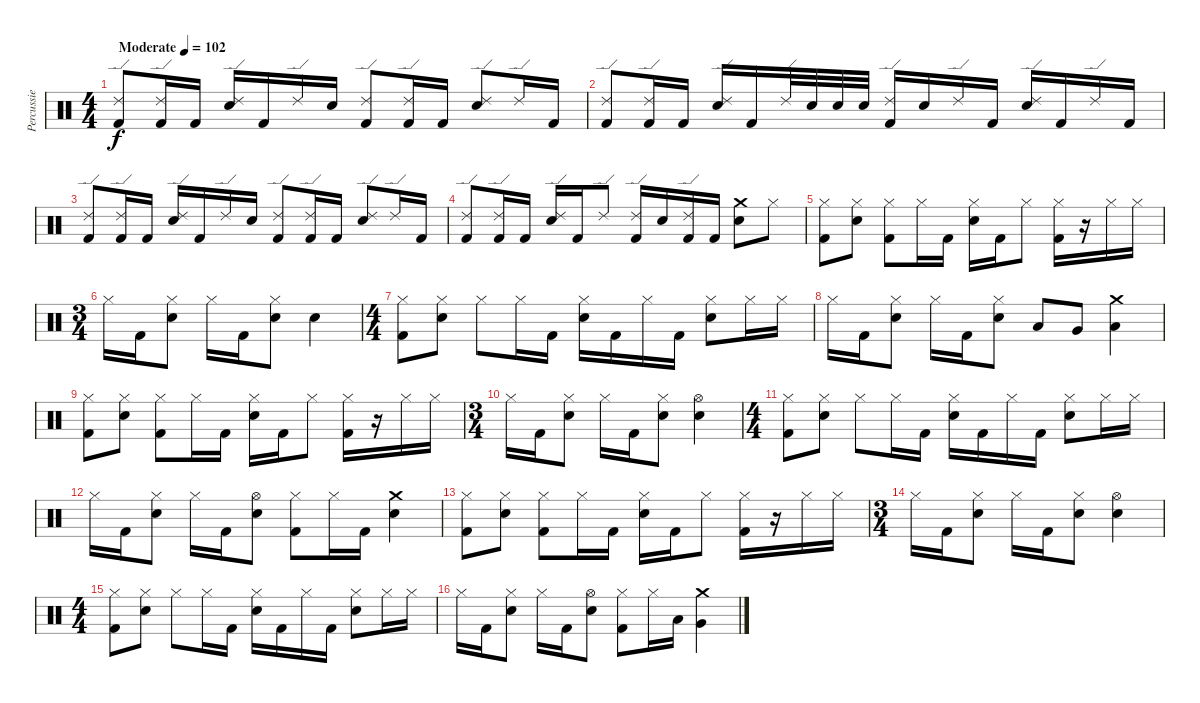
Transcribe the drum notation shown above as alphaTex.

\track ("Percussie" "Percussie") {instrument percussion}
\staff {score}
\articulation defaults
\ts (4 4)
\tempo (102 "Moderate")
\clef neutral
\ks c
("Ride (edge) 2" "Kick (hit) 2").8{dy f} ("Ride (edge) 2" "Kick (hit) 2").16 "Kick (hit) 2".16 ("Ride (edge) 2" "Electric Snare (hit)").16 "Kick (hit) 2".16 "Ride (edge) 2".16 "Electric Snare (hit)".16 ("Ride (edge) 2" "Kick (hit) 2").8 ("Ride (edge) 2" "Kick (hit) 2").16 "Kick (hit) 2".16 ("Ride (edge) 2" "Electric Snare (hit)").8 "Ride (edge) 2".16 "Kick (hit) 2".16 |
("Ride (edge) 2" "Kick (hit) 2").8 ("Ride (edge) 2" "Kick (hit) 2").16 "Kick (hit) 2".16 ("Ride (edge) 2" "Electric Snare (hit)").16 "Kick (hit) 2".16 "Ride (edge) 2".32 "Electric Snare (hit)".32 "Electric Snare (hit)".32 "Electric Snare (hit)".32 ("Ride (edge) 2" "Kick (hit) 2").16 "Electric Snare (hit)".16 "Ride (edge) 2".16 "Kick (hit) 2".16 ("Ride (edge) 2" "Electric Snare (hit)").16 "Kick (hit) 2".16 "Ride (edge) 2".16 "Kick (hit) 2".16 |
("Ride (edge) 2" "Kick (hit) 2").8 ("Ride (edge) 2" "Kick (hit) 2").16 "Kick (hit) 2".16 ("Ride (edge) 2" "Electric Snare (hit)").16 "Kick (hit) 2".16 "Ride (edge) 2".16 "Electric Snare (hit)".16 ("Ride (edge) 2" "Kick (hit) 2").8 ("Ride (edge) 2" "Kick (hit) 2").16 "Kick (hit) 2".16 ("Ride (edge) 2" "Electric Snare (hit)").8 "Ride (edge) 2".16 "Kick (hit) 2".16 |
("Ride (edge) 2" "Kick (hit) 2").8 ("Ride (edge) 2" "Kick (hit) 2").16 "Kick (hit) 2".16 ("Ride (edge) 2" "Electric Snare (hit)").16 "Kick (hit) 2".16 "Ride (edge) 2".8 ("Ride (edge) 2" "Kick (hit) 2").16 "Electric Snare (hit)".16 ("Ride (edge) 2" "Kick (hit) 2").16 "Kick (hit) 2".16 ("Crash medium (hit)" "Electric Snare (hit)").8 "Hi-Hat (closed)".8 |
("Hi-Hat (closed)" "Kick (hit) 2").8 ("Hi-Hat (closed)" "Electric Snare (hit)").8 ("Hi-Hat (closed)" "Kick (hit) 2").8 "Hi-Hat (closed)".16 "Kick (hit) 2".16 ("Hi-Hat (closed)" "Electric Snare (hit)").16 "Kick (hit) 2".16 "Hi-Hat (closed)".8 ("Hi-Hat (closed)" "Kick (hit) 2").16 r.16 "Hi-Hat (closed)".16 "Hi-Hat (closed)".16 |
\ts (3 4)
"Hi-Hat (closed)".16 "Kick (hit) 2".16 ("Hi-Hat (closed)" "Electric Snare (hit)").8 "Hi-Hat (closed)".16 "Kick (hit) 2".16 ("Hi-Hat (closed)" "Electric Snare (hit)").8 "Electric Snare (hit)".4 |
\ts (4 4)
("Hi-Hat (closed)" "Kick (hit) 2").8 ("Hi-Hat (closed)" "Electric Snare (hit)").8 "Hi-Hat (closed)".8 "Hi-Hat (closed)".16 "Kick (hit) 2".16 ("Hi-Hat (closed)" "Electric Snare (hit)").16 "Kick (hit) 2".16 "Hi-Hat (closed)".16 "Kick (hit) 2".16 ("Hi-Hat (closed)" "Electric Snare (hit)").8 "Hi-Hat (closed)".16 "Hi-Hat (closed)".16 |
"Hi-Hat (closed)".16 "Kick (hit) 2".16 ("Hi-Hat (closed)" "Electric Snare (hit)").8 "Hi-Hat (closed)".16 "Kick (hit) 2".16 ("Hi-Hat (closed)" "Electric Snare (hit)").8 "Low Tom (hit)".8 "Very Low Tom (hit)".8 ("Crash medium (hit)" "Low Floor Tom (hit)").4 |
("Hi-Hat (closed)" "Kick (hit) 2").8 ("Hi-Hat (closed)" "Electric Snare (hit)").8 ("Hi-Hat (closed)" "Kick (hit) 2").8 "Hi-Hat (closed)".16 "Kick (hit) 2".16 ("Hi-Hat (closed)" "Electric Snare (hit)").16 "Kick (hit) 2".16 "Hi-Hat (closed)".8 ("Hi-Hat (closed)" "Kick (hit) 2").16 r.16 "Hi-Hat (closed)".16 "Hi-Hat (closed)".16 |
\ts (3 4)
"Hi-Hat (closed)".16 "Kick (hit) 2".16 ("Hi-Hat (closed)" "Electric Snare (hit)").8 "Hi-Hat (closed)".16 "Kick (hit) 2".16 ("Hi-Hat (closed)" "Electric Snare (hit)").8 ("Hi-Hat (open)" "Electric Snare (hit)").4 |
\ts (4 4)
("Hi-Hat (closed)" "Kick (hit) 2").8 ("Hi-Hat (closed)" "Electric Snare (hit)").8 "Hi-Hat (closed)".8 "Hi-Hat (closed)".16 "Kick (hit) 2".16 ("Hi-Hat (closed)" "Electric Snare (hit)").16 "Kick (hit) 2".16 "Hi-Hat (closed)".16 "Kick (hit) 2".16 ("Hi-Hat (closed)" "Electric Snare (hit)").8 "Hi-Hat (closed)".16 "Hi-Hat (closed)".16 |
"Hi-Hat (closed)".16 "Kick (hit) 2".16 ("Hi-Hat (closed)" "Electric Snare (hit)").8 "Hi-Hat (closed)".16 "Kick (hit) 2".16 ("Hi-Hat (open)" "Electric Snare (hit)").8 ("Hi-Hat (closed)" "Kick (hit) 2").8 "Hi-Hat (closed)".16 "Kick (hit) 2".16 ("Crash medium (hit)" "Electric Snare (hit)").4 |
("Hi-Hat (closed)" "Kick (hit) 2").8 ("Hi-Hat (closed)" "Electric Snare (hit)").8 ("Hi-Hat (closed)" "Kick (hit) 2").8 "Hi-Hat (closed)".16 "Kick (hit) 2".16 ("Hi-Hat (closed)" "Electric Snare (hit)").16 "Kick (hit) 2".16 "Hi-Hat (closed)".8 ("Hi-Hat (closed)" "Kick (hit) 2").16 r.16 "Hi-Hat (closed)".16 "Hi-Hat (closed)".16 |
\ts (3 4)
"Hi-Hat (closed)".16 "Kick (hit) 2".16 ("Hi-Hat (closed)" "Electric Snare (hit)").8 "Hi-Hat (closed)".16 "Kick (hit) 2".16 ("Hi-Hat (closed)" "Electric Snare (hit)").8 ("Hi-Hat (open)" "Electric Snare (hit)").4 |
\ts (4 4)
("Hi-Hat (closed)" "Kick (hit) 2").8 ("Hi-Hat (closed)" "Electric Snare (hit)").8 "Hi-Hat (closed)".8 "Hi-Hat (closed)".16 "Kick (hit) 2".16 ("Hi-Hat (closed)" "Electric Snare (hit)").16 "Kick (hit) 2".16 "Hi-Hat (closed)".16 "Kick (hit) 2".16 ("Hi-Hat (closed)" "Electric Snare (hit)").8 "Hi-Hat (closed)".16 "Hi-Hat (closed)".16 |
"Hi-Hat (closed)".16 "Kick (hit) 2".16 ("Hi-Hat (closed)" "Electric Snare (hit)").8 "Hi-Hat (closed)".16 "Kick (hit) 2".16 ("Hi-Hat (open)" "Electric Snare (hit)").8 ("Hi-Hat (closed)" "Kick (hit) 2").8 "Hi-Hat (closed)".16 "Low Tom (hit)".16 ("Crash medium (hit)" "Very Low Tom (hit)").4
